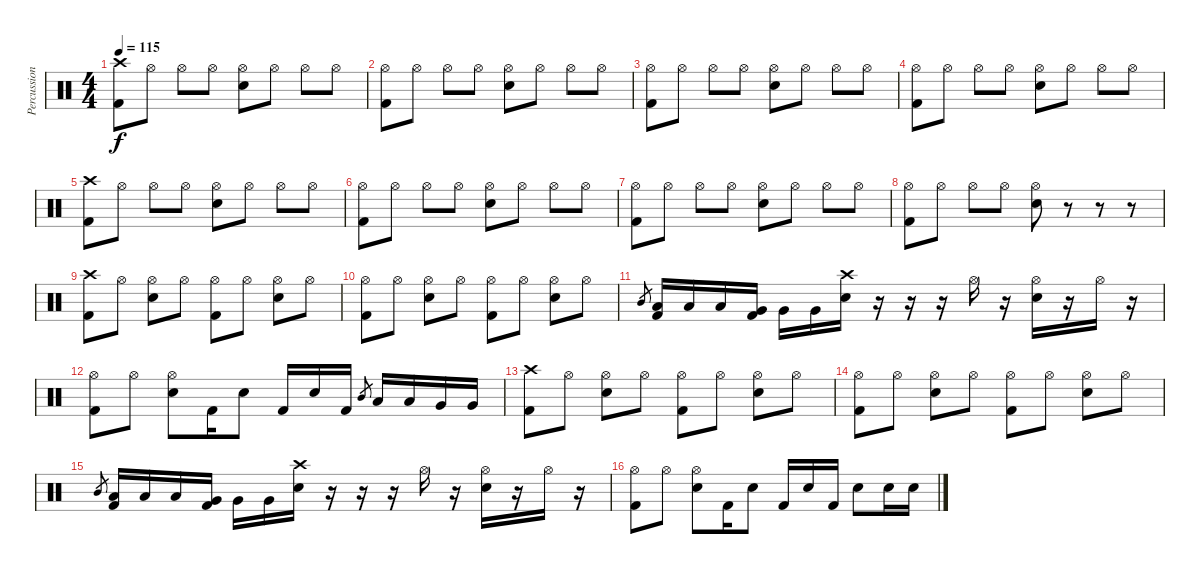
\track ("Percussion" "Percussion") {instrument percussion}
\staff {score}
\articulation defaults
\ts (4 4)
\tempo 115
\clef neutral
\ks c
("Crash high (hit)" "Kick (hit) 2").8{dy f} "Hi-Hat (open)".8 "Hi-Hat (open)".8 "Hi-Hat (open)".8 ("Hi-Hat (open)" "Snare (hit) 2").8 "Hi-Hat (open)".8 "Hi-Hat (open)".8 "Hi-Hat (open)".8 |
("Hi-Hat (open)" "Kick (hit) 2").8 "Hi-Hat (open)".8 "Hi-Hat (open)".8 "Hi-Hat (open)".8 ("Hi-Hat (open)" "Snare (hit) 2").8 "Hi-Hat (open)".8 "Hi-Hat (open)".8 "Hi-Hat (open)".8 |
("Hi-Hat (open)" "Kick (hit) 2").8 "Hi-Hat (open)".8 "Hi-Hat (open)".8 "Hi-Hat (open)".8 ("Hi-Hat (open)" "Snare (hit) 2").8 "Hi-Hat (open)".8 "Hi-Hat (open)".8 "Hi-Hat (open)".8 |
("Hi-Hat (open)" "Kick (hit) 2").8 "Hi-Hat (open)".8 "Hi-Hat (open)".8 "Hi-Hat (open)".8 ("Hi-Hat (open)" "Snare (hit) 2").8 "Hi-Hat (open)".8 "Hi-Hat (open)".8 "Hi-Hat (open)".8 |
("Crash high (hit)" "Kick (hit) 2").8 "Hi-Hat (open)".8 "Hi-Hat (open)".8 "Hi-Hat (open)".8 ("Hi-Hat (open)" "Snare (hit) 2").8 "Hi-Hat (open)".8 "Hi-Hat (open)".8 "Hi-Hat (open)".8 |
("Hi-Hat (open)" "Kick (hit) 2").8 "Hi-Hat (open)".8 "Hi-Hat (open)".8 "Hi-Hat (open)".8 ("Hi-Hat (open)" "Snare (hit) 2").8 "Hi-Hat (open)".8 "Hi-Hat (open)".8 "Hi-Hat (open)".8 |
("Hi-Hat (open)" "Kick (hit) 2").8 "Hi-Hat (open)".8 "Hi-Hat (open)".8 "Hi-Hat (open)".8 ("Hi-Hat (open)" "Snare (hit) 2").8 "Hi-Hat (open)".8 "Hi-Hat (open)".8 "Hi-Hat (open)".8 |
("Hi-Hat (open)" "Kick (hit) 2").8 "Hi-Hat (open)".8 "Hi-Hat (open)".8 "Hi-Hat (open)".8 ("Hi-Hat (open)" "Snare (hit) 2").8 r.8 r.8 r.8 |
("Crash high (hit)" "Kick (hit) 2").8 "Hi-Hat (open)".8 ("Hi-Hat (open)" "Snare (hit) 2").8 "Hi-Hat (open)".8 ("Hi-Hat (open)" "Kick (hit) 2").8 "Hi-Hat (open)".8 ("Hi-Hat (open)" "Snare (hit) 2").8 "Hi-Hat (open)".8 |
("Hi-Hat (open)" "Kick (hit) 2").8 "Hi-Hat (open)".8 ("Hi-Hat (open)" "Snare (hit) 2").8 "Hi-Hat (open)".8 ("Hi-Hat (open)" "Kick (hit) 2").8 "Hi-Hat (open)".8 ("Hi-Hat (open)" "Snare (hit) 2").8 "Hi-Hat (open)".8 |
"Mid Tom (hit)".8{gr} ("Low Tom (hit)" "Kick (hit) 2").16 "Low Tom (hit)".16 "Low Tom (hit)".16 ("Very Low Tom (hit)" "Kick (hit) 2").16 "Very Low Tom (hit)".16 "Very Low Tom (hit)".16 ("Crash high (hit)" "Snare (hit) 2").16 r.16 r.16 r.16 "Hi-Hat (open)".16 r.16 ("Hi-Hat (open)" "Snare (hit) 2").16 r.16 "Hi-Hat (open)".16 r.16 |
("Hi-Hat (open)" "Kick (hit) 2").8 "Hi-Hat (open)".8 ("Hi-Hat (open)" "Snare (hit) 2").8 "Kick (hit) 2".16 "Snare (hit) 2".8 "Kick (hit) 2".16 "Snare (hit) 2".16 "Kick (hit) 2".16 "Mid Tom (hit)".8{gr} "Low Tom (hit)".16 "Low Tom (hit)".16 "Very Low Tom (hit)".16 "Very Low Tom (hit)".16 |
("Crash high (hit)" "Kick (hit) 2").8 "Hi-Hat (open)".8 ("Hi-Hat (open)" "Snare (hit) 2").8 "Hi-Hat (open)".8 ("Hi-Hat (open)" "Kick (hit) 2").8 "Hi-Hat (open)".8 ("Hi-Hat (open)" "Snare (hit) 2").8 "Hi-Hat (open)".8 |
("Hi-Hat (open)" "Kick (hit) 2").8 "Hi-Hat (open)".8 ("Hi-Hat (open)" "Snare (hit) 2").8 "Hi-Hat (open)".8 ("Hi-Hat (open)" "Kick (hit) 2").8 "Hi-Hat (open)".8 ("Hi-Hat (open)" "Snare (hit) 2").8 "Hi-Hat (open)".8 |
"Mid Tom (hit)".8{gr} ("Low Tom (hit)" "Kick (hit) 2").16 "Low Tom (hit)".16 "Low Tom (hit)".16 ("Very Low Tom (hit)" "Kick (hit) 2").16 "Very Low Tom (hit)".16 "Very Low Tom (hit)".16 ("Crash high (hit)" "Snare (hit) 2").16 r.16 r.16 r.16 "Hi-Hat (open)".16 r.16 ("Hi-Hat (open)" "Snare (hit) 2").16 r.16 "Hi-Hat (open)".16 r.16 |
("Hi-Hat (open)" "Kick (hit) 2").8 "Hi-Hat (open)".8 ("Hi-Hat (open)" "Snare (hit) 2").8 "Kick (hit) 2".16 "Snare (hit) 2".8 "Kick (hit) 2".16 "Snare (hit) 2".16 "Kick (hit) 2".16 "Snare (hit) 2".8 "Snare (hit) 2".16 "Snare (hit) 2".16
